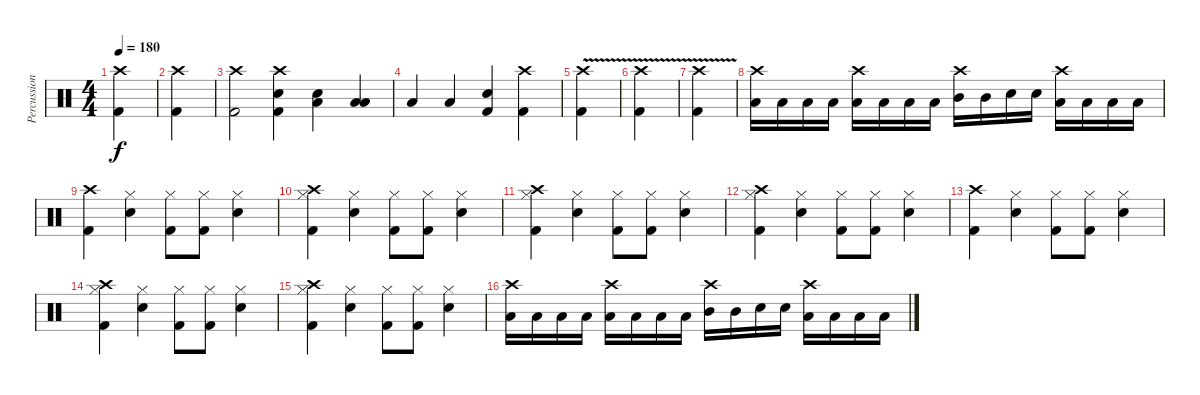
\track ("Percussion" "Percussion") {instrument percussion}
\staff {score}
\articulation defaults
\ts (4 4)
\tempo 180
\clef neutral
\ks c
("Crash high (hit)" "Kick (hit) 2").4{dy f} |
("Crash high (hit)" "Kick (hit) 2").4 |
("Crash high (hit)" "Kick (hit) 2").2 ("Crash high (hit)" "Kick (hit) 2" "Snare (hit) 2").4 ("Low Floor Tom (hit)" "Snare (hit) 2").4 ("Low Tom (hit)" "Low Floor Tom (hit)").4 |
"Low Tom (hit)".4 "Low Floor Tom (hit)".4 ("Kick (hit) 2" "Snare (hit) 2").4 ("Kick (hit) 2" "Crash high (hit)").4 |
("Crash high (hit)"{v} "Kick (hit) 2").4 |
("Crash high (hit)"{v} "Kick (hit) 2").4 |
("Crash high (hit)"{v} "Kick (hit) 2").4 |
("Crash high (hit)" "Low Floor Tom (hit)").16 "Low Floor Tom (hit)".16 "Low Floor Tom (hit)".16 "Low Floor Tom (hit)".16 ("Crash high (hit)" "Low Floor Tom (hit)").16 "Low Floor Tom (hit)".16 "Low Floor Tom (hit)".16 "Low Floor Tom (hit)".16 ("Crash high (hit)" "Mid Tom (hit)").16 "Mid Tom (hit)".16 "Snare (hit) 2".16 "Snare (hit) 2".16 ("Crash high (hit)" "Low Floor Tom (hit)").16 "Low Floor Tom (hit)".16 "Low Tom (hit)".16 "Low Tom (hit)".16 |
("Crash high (hit)" "Kick (hit) 2").4 ("Hi-Hat (closed)" "Snare (hit) 2").4 ("Hi-Hat (closed)" "Kick (hit) 2").8 ("Hi-Hat (closed)" "Kick (hit) 2").8 ("Hi-Hat (closed)" "Snare (hit) 2").4 |
("Crash high (hit)" "Hi-Hat (closed)" "Kick (hit) 2").4 ("Hi-Hat (closed)" "Snare (hit) 2").4 ("Hi-Hat (closed)" "Kick (hit) 2").8 ("Hi-Hat (closed)" "Kick (hit) 2").8 ("Hi-Hat (closed)" "Snare (hit) 2").4 |
("Crash high (hit)" "Hi-Hat (closed)" "Kick (hit) 2").4 ("Hi-Hat (closed)" "Snare (hit) 2").4 ("Hi-Hat (closed)" "Kick (hit) 2").8 ("Hi-Hat (closed)" "Kick (hit) 2").8 ("Hi-Hat (closed)" "Snare (hit) 2").4 |
("Crash high (hit)" "Hi-Hat (closed)" "Kick (hit) 2").4 ("Hi-Hat (closed)" "Snare (hit) 2").4 ("Hi-Hat (closed)" "Kick (hit) 2").8 ("Hi-Hat (closed)" "Kick (hit) 2").8 ("Hi-Hat (closed)" "Snare (hit) 2").4 |
("Crash high (hit)" "Kick (hit) 2").4 ("Hi-Hat (closed)" "Snare (hit) 2").4 ("Hi-Hat (closed)" "Kick (hit) 2").8 ("Hi-Hat (closed)" "Kick (hit) 2").8 ("Hi-Hat (closed)" "Snare (hit) 2").4 |
("Crash high (hit)" "Hi-Hat (closed)" "Kick (hit) 2").4 ("Hi-Hat (closed)" "Snare (hit) 2").4 ("Hi-Hat (closed)" "Kick (hit) 2").8 ("Hi-Hat (closed)" "Kick (hit) 2").8 ("Hi-Hat (closed)" "Snare (hit) 2").4 |
("Crash high (hit)" "Hi-Hat (closed)" "Kick (hit) 2").4 ("Hi-Hat (closed)" "Snare (hit) 2").4 ("Hi-Hat (closed)" "Kick (hit) 2").8 ("Hi-Hat (closed)" "Kick (hit) 2").8 ("Hi-Hat (closed)" "Snare (hit) 2").4 |
("Crash high (hit)" "Low Floor Tom (hit)").16 "Low Floor Tom (hit)".16 "Low Floor Tom (hit)".16 "Low Floor Tom (hit)".16 ("Crash high (hit)" "Low Floor Tom (hit)").16 "Low Floor Tom (hit)".16 "Low Floor Tom (hit)".16 "Low Floor Tom (hit)".16 ("Crash high (hit)" "Mid Tom (hit)").16 "Mid Tom (hit)".16 "Snare (hit) 2".16 "Snare (hit) 2".16 ("Crash high (hit)" "Low Floor Tom (hit)").16 "Low Floor Tom (hit)".16 "Low Tom (hit)".16 "Low Tom (hit)".16
